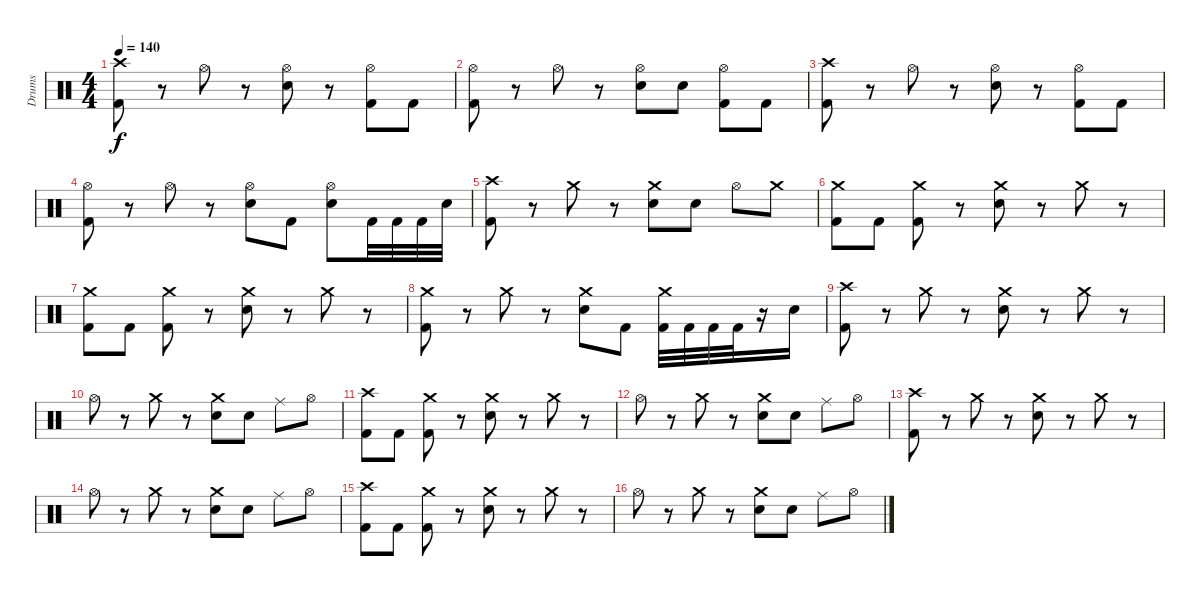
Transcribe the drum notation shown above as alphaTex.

\track ("Drums" "Drums") {instrument percussion}
\staff {score}
\articulation defaults
\ts (4 4)
\tempo 140
\clef neutral
\ks c
("Crash high (hit)" "Kick (hit) 2").8{dy f} r.8 "Hi-Hat (open)".8 r.8 ("Hi-Hat (open)" "Electric Snare (hit)").8 r.8 ("Hi-Hat (open)" "Kick (hit) 2").8 "Kick (hit) 2".8 |
("Hi-Hat (open)" "Kick (hit) 2").8 r.8 "Hi-Hat (open)".8 r.8 ("Hi-Hat (open)" "Electric Snare (hit)").8 "Electric Snare (hit)".8 ("Hi-Hat (open)" "Kick (hit) 2").8 "Kick (hit) 2".8 |
("Crash high (hit)" "Kick (hit) 2").8 r.8 "Hi-Hat (open)".8 r.8 ("Hi-Hat (open)" "Electric Snare (hit)").8 r.8 ("Hi-Hat (open)" "Kick (hit) 2").8 "Kick (hit) 2".8 |
("Hi-Hat (open)" "Kick (hit) 2").8 r.8 "Hi-Hat (open)".8 r.8 ("Hi-Hat (open)" "Electric Snare (hit)").8 "Kick (hit) 2".8 ("Hi-Hat (open)" "Electric Snare (hit)").8 "Kick (hit) 2".32 "Kick (hit) 2".32 "Kick (hit) 2".32 "Electric Snare (hit)".32 |
("Crash high (hit)" "Kick (hit) 2").8 r.8 "Crash medium (hit)".8 r.8 ("Crash medium (hit)" "Electric Snare (hit)").8 "Electric Snare (hit)".8 "Hi-Hat (open)".8 "Crash medium (hit)".8 |
("Crash medium (hit)" "Kick (hit) 2").8 "Kick (hit) 2".8 ("Crash medium (hit)" "Kick (hit) 2").8 r.8 ("Crash medium (hit)" "Electric Snare (hit)").8 r.8 "Crash medium (hit)".8 r.8 |
("Crash medium (hit)" "Kick (hit) 2").8 "Kick (hit) 2".8 ("Crash medium (hit)" "Kick (hit) 2").8 r.8 ("Crash medium (hit)" "Electric Snare (hit)").8 r.8 "Crash medium (hit)".8 r.8 |
("Crash medium (hit)" "Kick (hit) 2").8 r.8 "Crash medium (hit)".8 r.8 ("Crash medium (hit)" "Electric Snare (hit)").8 "Kick (hit) 2".8 ("Crash medium (hit)" "Kick (hit) 2").32 "Kick (hit) 2".32 "Kick (hit) 2".32 "Kick (hit) 2".32 r.16 "Electric Snare (hit)".16 |
("Crash high (hit)" "Kick (hit) 2").8 r.8 "Crash medium (hit)".8 r.8 ("Crash medium (hit)" "Electric Snare (hit)").8 r.8 "Crash medium (hit)".8 r.8 |
"Hi-Hat (open)".8 r.8 "Crash medium (hit)".8 r.8 ("Crash medium (hit)" "Electric Snare (hit)").8 "Electric Snare (hit)".8 "Ride (middle)".8 "Hi-Hat (open)".8 |
("Crash high (hit)" "Kick (hit) 2").8 "Kick (hit) 2".8 ("Crash medium (hit)" "Kick (hit) 2").8 r.8 ("Crash medium (hit)" "Electric Snare (hit)").8 r.8 "Crash medium (hit)".8 r.8 |
"Hi-Hat (open)".8 r.8 "Crash medium (hit)".8 r.8 ("Crash medium (hit)" "Electric Snare (hit)").8 "Electric Snare (hit)".8 "Ride (middle)".8 "Hi-Hat (open)".8 |
("Crash high (hit)" "Kick (hit) 2").8 r.8 "Crash medium (hit)".8 r.8 ("Crash medium (hit)" "Electric Snare (hit)").8 r.8 "Crash medium (hit)".8 r.8 |
"Hi-Hat (open)".8 r.8 "Crash medium (hit)".8 r.8 ("Crash medium (hit)" "Electric Snare (hit)").8 "Electric Snare (hit)".8 "Ride (middle)".8 "Hi-Hat (open)".8 |
("Crash high (hit)" "Kick (hit) 2").8 "Kick (hit) 2".8 ("Crash medium (hit)" "Kick (hit) 2").8 r.8 ("Crash medium (hit)" "Electric Snare (hit)").8 r.8 "Crash medium (hit)".8 r.8 |
"Hi-Hat (open)".8 r.8 "Crash medium (hit)".8 r.8 ("Crash medium (hit)" "Electric Snare (hit)").8 "Electric Snare (hit)".8 "Ride (middle)".8 "Hi-Hat (open)".8
